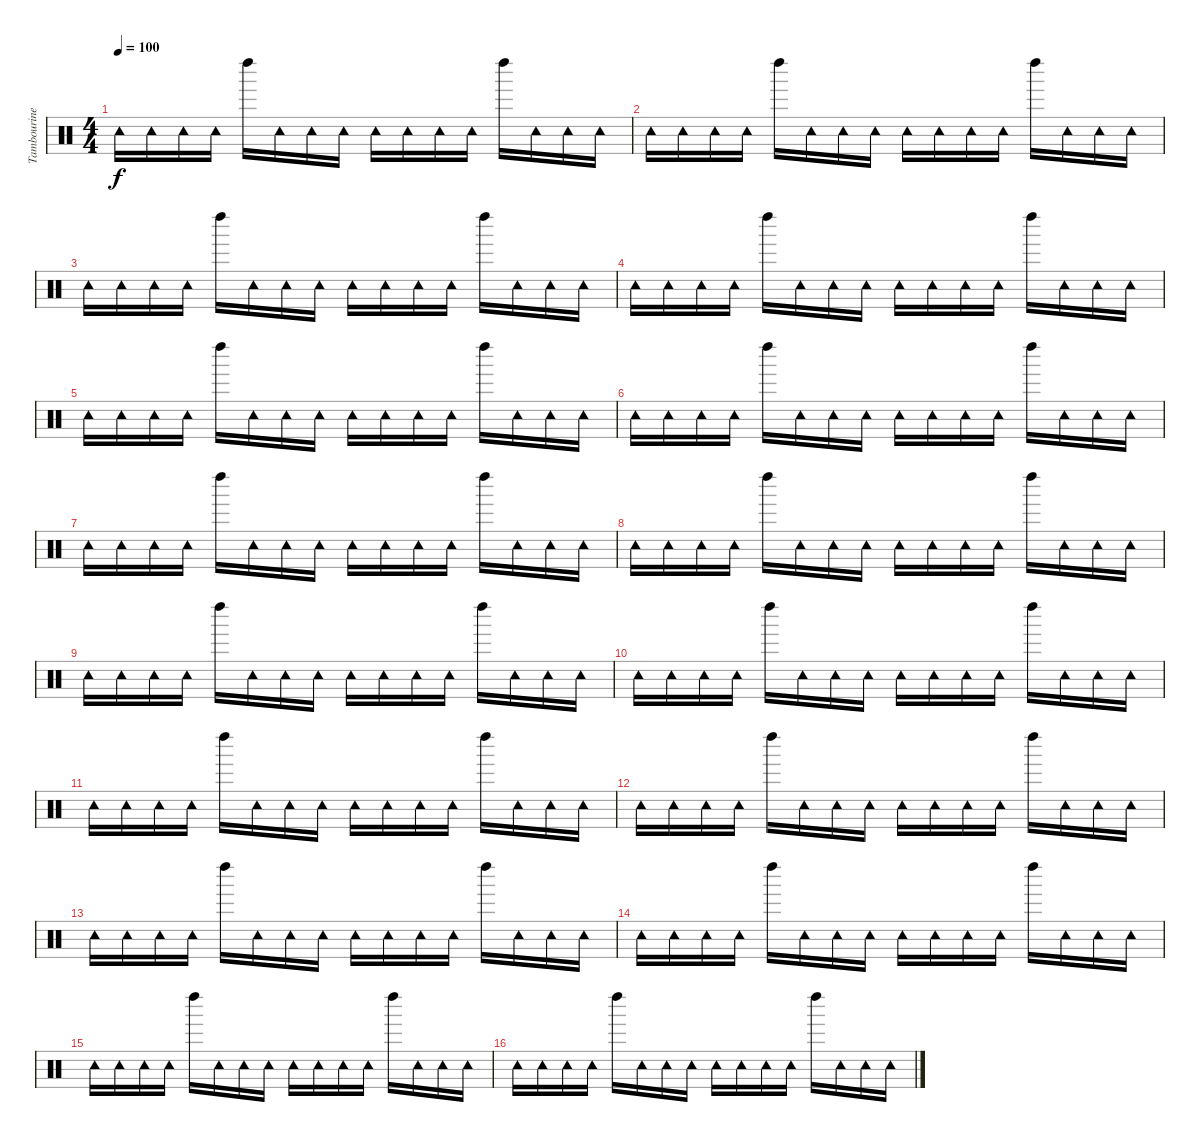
\track ("Tambourine(Alan)" "Tambourine") {instrument percussion}
\staff {score}
\articulation defaults
\ts (4 4)
\tempo 100
\clef neutral
\ks c "Tambourine (hit)".16{dy f} "Tambourine (hit)".16 "Tambourine (hit)".16 "Tambourine (hit)".16 "Left Maraca (hit)".16 "Tambourine (hit)".16 "Tambourine (hit)".16 "Tambourine (hit)".16 "Tambourine (hit)".16 "Tambourine (hit)".16 "Tambourine (hit)".16 "Tambourine (hit)".16 "Left Maraca (hit)".16 "Tambourine (hit)".16 "Tambourine (hit)".16 "Tambourine (hit)".16
|
"Tambourine (hit)".16 "Tambourine (hit)".16 "Tambourine (hit)".16 "Tambourine (hit)".16 "Left Maraca (hit)".16 "Tambourine (hit)".16 "Tambourine (hit)".16 "Tambourine (hit)".16 "Tambourine (hit)".16 "Tambourine (hit)".16 "Tambourine (hit)".16 "Tambourine (hit)".16 "Left Maraca (hit)".16 "Tambourine (hit)".16 "Tambourine (hit)".16 "Tambourine (hit)".16 |
"Tambourine (hit)".16 "Tambourine (hit)".16 "Tambourine (hit)".16 "Tambourine (hit)".16 "Left Maraca (hit)".16 "Tambourine (hit)".16 "Tambourine (hit)".16 "Tambourine (hit)".16 "Tambourine (hit)".16 "Tambourine (hit)".16 "Tambourine (hit)".16 "Tambourine (hit)".16 "Left Maraca (hit)".16 "Tambourine (hit)".16 "Tambourine (hit)".16 "Tambourine (hit)".16 |
"Tambourine (hit)".16 "Tambourine (hit)".16 "Tambourine (hit)".16 "Tambourine (hit)".16 "Left Maraca (hit)".16 "Tambourine (hit)".16 "Tambourine (hit)".16 "Tambourine (hit)".16 "Tambourine (hit)".16 "Tambourine (hit)".16 "Tambourine (hit)".16 "Tambourine (hit)".16 "Left Maraca (hit)".16 "Tambourine (hit)".16 "Tambourine (hit)".16 "Tambourine (hit)".16 |
"Tambourine (hit)".16 "Tambourine (hit)".16 "Tambourine (hit)".16 "Tambourine (hit)".16 "Left Maraca (hit)".16 "Tambourine (hit)".16 "Tambourine (hit)".16 "Tambourine (hit)".16 "Tambourine (hit)".16 "Tambourine (hit)".16 "Tambourine (hit)".16 "Tambourine (hit)".16 "Left Maraca (hit)".16 "Tambourine (hit)".16 "Tambourine (hit)".16 "Tambourine (hit)".16 |
"Tambourine (hit)".16 "Tambourine (hit)".16 "Tambourine (hit)".16 "Tambourine (hit)".16 "Left Maraca (hit)".16 "Tambourine (hit)".16 "Tambourine (hit)".16 "Tambourine (hit)".16 "Tambourine (hit)".16 "Tambourine (hit)".16 "Tambourine (hit)".16 "Tambourine (hit)".16 "Left Maraca (hit)".16 "Tambourine (hit)".16 "Tambourine (hit)".16 "Tambourine (hit)".16 |
"Tambourine (hit)".16 "Tambourine (hit)".16 "Tambourine (hit)".16 "Tambourine (hit)".16 "Left Maraca (hit)".16 "Tambourine (hit)".16 "Tambourine (hit)".16 "Tambourine (hit)".16 "Tambourine (hit)".16 "Tambourine (hit)".16 "Tambourine (hit)".16 "Tambourine (hit)".16 "Left Maraca (hit)".16 "Tambourine (hit)".16 "Tambourine (hit)".16 "Tambourine (hit)".16 |
"Tambourine (hit)".16 "Tambourine (hit)".16 "Tambourine (hit)".16 "Tambourine (hit)".16 "Left Maraca (hit)".16 "Tambourine (hit)".16 "Tambourine (hit)".16 "Tambourine (hit)".16 "Tambourine (hit)".16 "Tambourine (hit)".16 "Tambourine (hit)".16 "Tambourine (hit)".16 "Left Maraca (hit)".16 "Tambourine (hit)".16 "Tambourine (hit)".16 "Tambourine (hit)".16 |
"Tambourine (hit)".16 "Tambourine (hit)".16 "Tambourine (hit)".16 "Tambourine (hit)".16 "Left Maraca (hit)".16 "Tambourine (hit)".16 "Tambourine (hit)".16 "Tambourine (hit)".16 "Tambourine (hit)".16 "Tambourine (hit)".16 "Tambourine (hit)".16 "Tambourine (hit)".16 "Left Maraca (hit)".16 "Tambourine (hit)".16 "Tambourine (hit)".16 "Tambourine (hit)".16 |
"Tambourine (hit)".16 "Tambourine (hit)".16 "Tambourine (hit)".16 "Tambourine (hit)".16 "Left Maraca (hit)".16 "Tambourine (hit)".16 "Tambourine (hit)".16 "Tambourine (hit)".16 "Tambourine (hit)".16 "Tambourine (hit)".16 "Tambourine (hit)".16 "Tambourine (hit)".16 "Left Maraca (hit)".16 "Tambourine (hit)".16 "Tambourine (hit)".16 "Tambourine (hit)".16 |
"Tambourine (hit)".16 "Tambourine (hit)".16 "Tambourine (hit)".16 "Tambourine (hit)".16 "Left Maraca (hit)".16 "Tambourine (hit)".16 "Tambourine (hit)".16 "Tambourine (hit)".16 "Tambourine (hit)".16 "Tambourine (hit)".16 "Tambourine (hit)".16 "Tambourine (hit)".16 "Left Maraca (hit)".16 "Tambourine (hit)".16 "Tambourine (hit)".16 "Tambourine (hit)".16 |
"Tambourine (hit)".16 "Tambourine (hit)".16 "Tambourine (hit)".16 "Tambourine (hit)".16 "Left Maraca (hit)".16 "Tambourine (hit)".16 "Tambourine (hit)".16 "Tambourine (hit)".16 "Tambourine (hit)".16 "Tambourine (hit)".16 "Tambourine (hit)".16 "Tambourine (hit)".16 "Left Maraca (hit)".16 "Tambourine (hit)".16 "Tambourine (hit)".16 "Tambourine (hit)".16 |
"Tambourine (hit)".16 "Tambourine (hit)".16 "Tambourine (hit)".16 "Tambourine (hit)".16 "Left Maraca (hit)".16 "Tambourine (hit)".16 "Tambourine (hit)".16 "Tambourine (hit)".16 "Tambourine (hit)".16 "Tambourine (hit)".16 "Tambourine (hit)".16 "Tambourine (hit)".16 "Left Maraca (hit)".16 "Tambourine (hit)".16 "Tambourine (hit)".16 "Tambourine (hit)".16 |
"Tambourine (hit)".16 "Tambourine (hit)".16 "Tambourine (hit)".16 "Tambourine (hit)".16 "Left Maraca (hit)".16 "Tambourine (hit)".16 "Tambourine (hit)".16 "Tambourine (hit)".16 "Tambourine (hit)".16 "Tambourine (hit)".16 "Tambourine (hit)".16 "Tambourine (hit)".16 "Left Maraca (hit)".16 "Tambourine (hit)".16 "Tambourine (hit)".16 "Tambourine (hit)".16 |
"Tambourine (hit)".16 "Tambourine (hit)".16 "Tambourine (hit)".16 "Tambourine (hit)".16 "Left Maraca (hit)".16 "Tambourine (hit)".16 "Tambourine (hit)".16 "Tambourine (hit)".16 "Tambourine (hit)".16 "Tambourine (hit)".16 "Tambourine (hit)".16 "Tambourine (hit)".16 "Left Maraca (hit)".16 "Tambourine (hit)".16 "Tambourine (hit)".16 "Tambourine (hit)".16 |
"Tambourine (hit)".16 "Tambourine (hit)".16 "Tambourine (hit)".16 "Tambourine (hit)".16 "Left Maraca (hit)".16 "Tambourine (hit)".16 "Tambourine (hit)".16 "Tambourine (hit)".16 "Tambourine (hit)".16 "Tambourine (hit)".16 "Tambourine (hit)".16 "Tambourine (hit)".16 "Left Maraca (hit)".16 "Tambourine (hit)".16 "Tambourine (hit)".16 "Tambourine (hit)".16
